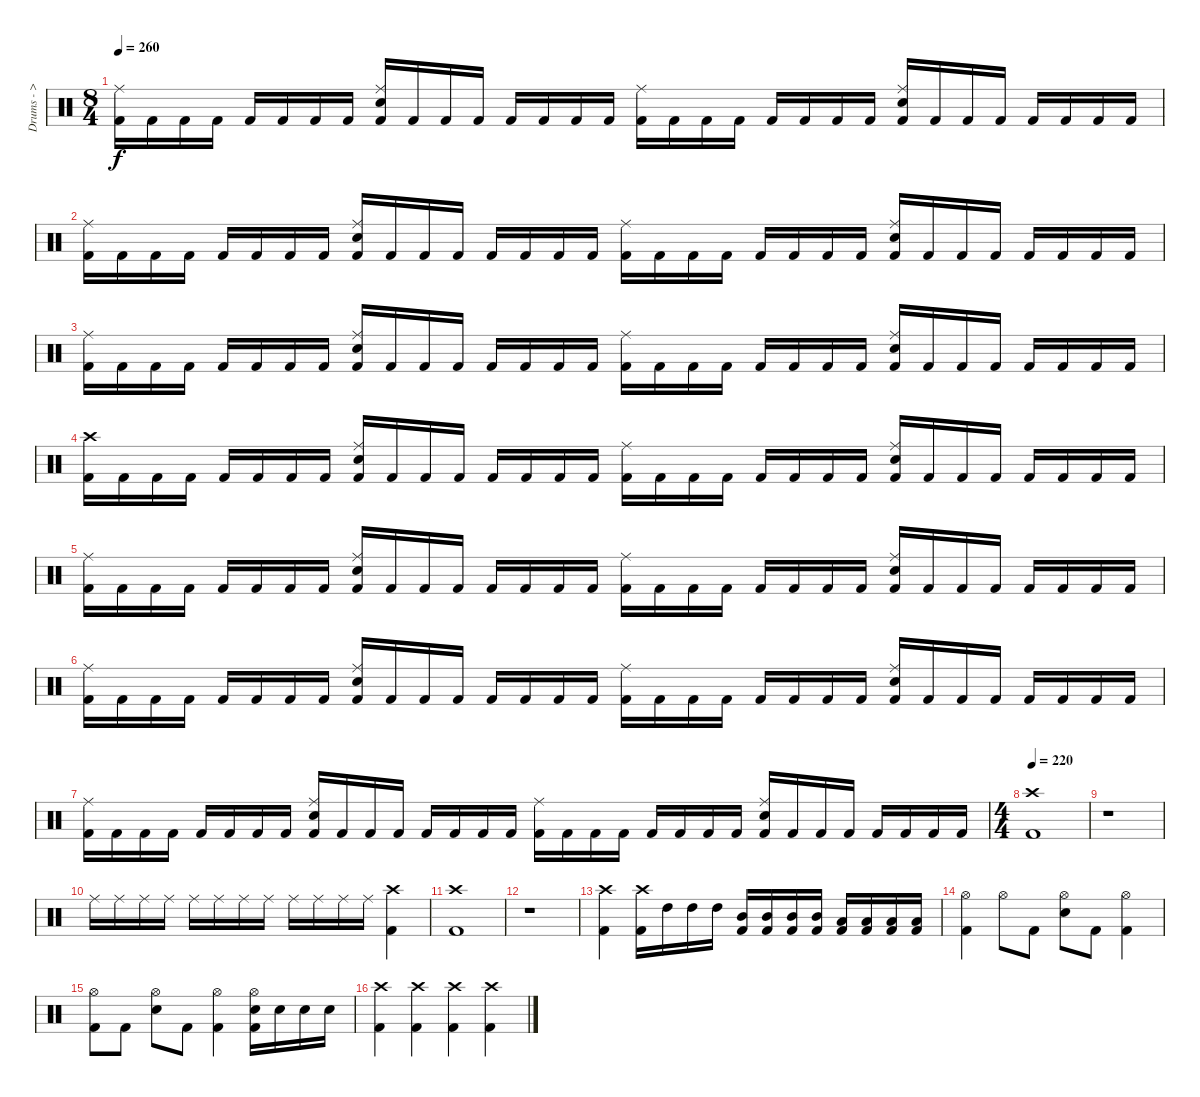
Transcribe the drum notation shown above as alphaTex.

\track ("Drums - > Nicholas" "Drums - > ") {instrument percussion}
\staff {score}
\articulation defaults
\ts (8 4)
\tempo 260
\clef neutral
\ks c
("Kick (hit) 2" "Ride (middle)").16{dy f} "Kick (hit) 2".16 "Kick (hit) 2".16 "Kick (hit) 2".16 "Kick (hit) 2".16 "Kick (hit) 2".16 "Kick (hit) 2".16 "Kick (hit) 2".16 ("Kick (hit) 2" "Snare (hit) 2" "Ride (middle)").16 "Kick (hit) 2".16 "Kick (hit) 2".16 "Kick (hit) 2".16 "Kick (hit) 2".16 "Kick (hit) 2".16 "Kick (hit) 2".16 "Kick (hit) 2".16 ("Kick (hit) 2" "Ride (middle)").16 "Kick (hit) 2".16 "Kick (hit) 2".16 "Kick (hit) 2".16 "Kick (hit) 2".16 "Kick (hit) 2".16 "Kick (hit) 2".16 "Kick (hit) 2".16 ("Kick (hit) 2" "Snare (hit) 2" "Ride (middle)").16 "Kick (hit) 2".16 "Kick (hit) 2".16 "Kick (hit) 2".16 "Kick (hit) 2".16 "Kick (hit) 2".16 "Kick (hit) 2".16 "Kick (hit) 2".16 |
("Kick (hit) 2" "Ride (middle)").16 "Kick (hit) 2".16 "Kick (hit) 2".16 "Kick (hit) 2".16 "Kick (hit) 2".16 "Kick (hit) 2".16 "Kick (hit) 2".16 "Kick (hit) 2".16 ("Kick (hit) 2" "Snare (hit) 2" "Ride (middle)").16 "Kick (hit) 2".16 "Kick (hit) 2".16 "Kick (hit) 2".16 "Kick (hit) 2".16 "Kick (hit) 2".16 "Kick (hit) 2".16 "Kick (hit) 2".16 ("Kick (hit) 2" "Ride (middle)").16 "Kick (hit) 2".16 "Kick (hit) 2".16 "Kick (hit) 2".16 "Kick (hit) 2".16 "Kick (hit) 2".16 "Kick (hit) 2".16 "Kick (hit) 2".16 ("Kick (hit) 2" "Snare (hit) 2" "Ride (middle)").16 "Kick (hit) 2".16 "Kick (hit) 2".16 "Kick (hit) 2".16 "Kick (hit) 2".16 "Kick (hit) 2".16 "Kick (hit) 2".16 "Kick (hit) 2".16 |
("Kick (hit) 2" "Ride (middle)").16 "Kick (hit) 2".16 "Kick (hit) 2".16 "Kick (hit) 2".16 "Kick (hit) 2".16 "Kick (hit) 2".16 "Kick (hit) 2".16 "Kick (hit) 2".16 ("Kick (hit) 2" "Snare (hit) 2" "Ride (middle)").16 "Kick (hit) 2".16 "Kick (hit) 2".16 "Kick (hit) 2".16 "Kick (hit) 2".16 "Kick (hit) 2".16 "Kick (hit) 2".16 "Kick (hit) 2".16 ("Kick (hit) 2" "Ride (middle)").16 "Kick (hit) 2".16 "Kick (hit) 2".16 "Kick (hit) 2".16 "Kick (hit) 2".16 "Kick (hit) 2".16 "Kick (hit) 2".16 "Kick (hit) 2".16 ("Kick (hit) 2" "Snare (hit) 2" "Ride (middle)").16 "Kick (hit) 2".16 "Kick (hit) 2".16 "Kick (hit) 2".16 "Kick (hit) 2".16 "Kick (hit) 2".16 "Kick (hit) 2".16 "Kick (hit) 2".16 |
("Kick (hit) 2" "Crash high (hit)").16 "Kick (hit) 2".16 "Kick (hit) 2".16 "Kick (hit) 2".16 "Kick (hit) 2".16 "Kick (hit) 2".16 "Kick (hit) 2".16 "Kick (hit) 2".16 ("Kick (hit) 2" "Snare (hit) 2" "Ride (middle)").16 "Kick (hit) 2".16 "Kick (hit) 2".16 "Kick (hit) 2".16 "Kick (hit) 2".16 "Kick (hit) 2".16 "Kick (hit) 2".16 "Kick (hit) 2".16 ("Kick (hit) 2" "Ride (middle)").16 "Kick (hit) 2".16 "Kick (hit) 2".16 "Kick (hit) 2".16 "Kick (hit) 2".16 "Kick (hit) 2".16 "Kick (hit) 2".16 "Kick (hit) 2".16 ("Kick (hit) 2" "Snare (hit) 2" "Ride (middle)").16 "Kick (hit) 2".16 "Kick (hit) 2".16 "Kick (hit) 2".16 "Kick (hit) 2".16 "Kick (hit) 2".16 "Kick (hit) 2".16 "Kick (hit) 2".16 |
("Kick (hit) 2" "Ride (middle)").16 "Kick (hit) 2".16 "Kick (hit) 2".16 "Kick (hit) 2".16 "Kick (hit) 2".16 "Kick (hit) 2".16 "Kick (hit) 2".16 "Kick (hit) 2".16 ("Kick (hit) 2" "Snare (hit) 2" "Ride (middle)").16 "Kick (hit) 2".16 "Kick (hit) 2".16 "Kick (hit) 2".16 "Kick (hit) 2".16 "Kick (hit) 2".16 "Kick (hit) 2".16 "Kick (hit) 2".16 ("Kick (hit) 2" "Ride (middle)").16 "Kick (hit) 2".16 "Kick (hit) 2".16 "Kick (hit) 2".16 "Kick (hit) 2".16 "Kick (hit) 2".16 "Kick (hit) 2".16 "Kick (hit) 2".16 ("Kick (hit) 2" "Snare (hit) 2" "Ride (middle)").16 "Kick (hit) 2".16 "Kick (hit) 2".16 "Kick (hit) 2".16 "Kick (hit) 2".16 "Kick (hit) 2".16 "Kick (hit) 2".16 "Kick (hit) 2".16 |
("Kick (hit) 2" "Ride (middle)").16 "Kick (hit) 2".16 "Kick (hit) 2".16 "Kick (hit) 2".16 "Kick (hit) 2".16 "Kick (hit) 2".16 "Kick (hit) 2".16 "Kick (hit) 2".16 ("Kick (hit) 2" "Snare (hit) 2" "Ride (middle)").16 "Kick (hit) 2".16 "Kick (hit) 2".16 "Kick (hit) 2".16 "Kick (hit) 2".16 "Kick (hit) 2".16 "Kick (hit) 2".16 "Kick (hit) 2".16 ("Kick (hit) 2" "Ride (middle)").16 "Kick (hit) 2".16 "Kick (hit) 2".16 "Kick (hit) 2".16 "Kick (hit) 2".16 "Kick (hit) 2".16 "Kick (hit) 2".16 "Kick (hit) 2".16 ("Kick (hit) 2" "Snare (hit) 2" "Ride (middle)").16 "Kick (hit) 2".16 "Kick (hit) 2".16 "Kick (hit) 2".16 "Kick (hit) 2".16 "Kick (hit) 2".16 "Kick (hit) 2".16 "Kick (hit) 2".16 |
("Kick (hit) 2" "Ride (middle)").16 "Kick (hit) 2".16 "Kick (hit) 2".16 "Kick (hit) 2".16 "Kick (hit) 2".16 "Kick (hit) 2".16 "Kick (hit) 2".16 "Kick (hit) 2".16 ("Kick (hit) 2" "Snare (hit) 2" "Ride (middle)").16 "Kick (hit) 2".16 "Kick (hit) 2".16 "Kick (hit) 2".16 "Kick (hit) 2".16 "Kick (hit) 2".16 "Kick (hit) 2".16 "Kick (hit) 2".16 ("Kick (hit) 2" "Ride (middle)").16 "Kick (hit) 2".16 "Kick (hit) 2".16 "Kick (hit) 2".16 "Kick (hit) 2".16 "Kick (hit) 2".16 "Kick (hit) 2".16 "Kick (hit) 2".16 ("Kick (hit) 2" "Snare (hit) 2" "Ride (middle)").16 "Kick (hit) 2".16 "Kick (hit) 2".16 "Kick (hit) 2".16 "Kick (hit) 2".16 "Kick (hit) 2".16 "Kick (hit) 2".16 "Kick (hit) 2".16 |
\ts (4 4)
\tempo 220
("Kick (hit) 2" "Crash high (hit)").1 |
r.1 |
"Ride (middle)".16 "Ride (middle)".16 "Ride (middle)".16 "Ride (middle)".16 "Ride (middle)".16 "Ride (middle)".16 "Ride (middle)".16 "Ride (middle)".16 "Ride (middle)".16 "Ride (middle)".16 "Ride (middle)".16 "Ride (middle)".16 ("Kick (hit) 2" "Crash high (hit)").4 |
("Kick (hit) 2" "Crash high (hit)").1 |
r.1 |
("Kick (hit) 2" "Crash high (hit)").4 ("Kick (hit) 2" "Crash high (hit)").16 "High Tom (hit)".16 "High Tom (hit)".16 "High Tom (hit)".16 ("Kick (hit) 2" "Mid Tom (hit)").16 ("Kick (hit) 2" "Mid Tom (hit)").16 ("Kick (hit) 2" "Mid Tom (hit)").16 ("Kick (hit) 2" "Mid Tom (hit)").16 ("Kick (hit) 2" "Low Tom (hit)").16 ("Kick (hit) 2" "Low Tom (hit)").16 ("Kick (hit) 2" "Low Tom (hit)").16 ("Kick (hit) 2" "Low Tom (hit)").16 |
("Kick (hit) 2" "Hi-Hat (open)").4 "Hi-Hat (open)".8 "Kick (hit) 2".8 ("Snare (hit) 2" "Hi-Hat (open)").8 "Kick (hit) 2".8 ("Kick (hit) 2" "Hi-Hat (open)").4 |
("Kick (hit) 2" "Hi-Hat (open)").8 "Kick (hit) 2".8 ("Snare (hit) 2" "Hi-Hat (open)").8 "Kick (hit) 2".8 ("Kick (hit) 2" "Hi-Hat (open)").4 ("Kick (hit) 2" "Snare (hit) 2" "Hi-Hat (open)").16 "Snare (hit) 2".16 "Snare (hit) 2".16 "Snare (hit) 2".16 |
("Kick (hit) 2" "Crash high (hit)").4 ("Kick (hit) 2" "Crash high (hit)").4 ("Kick (hit) 2" "Crash high (hit)").4 ("Kick (hit) 2" "Crash high (hit)").4
